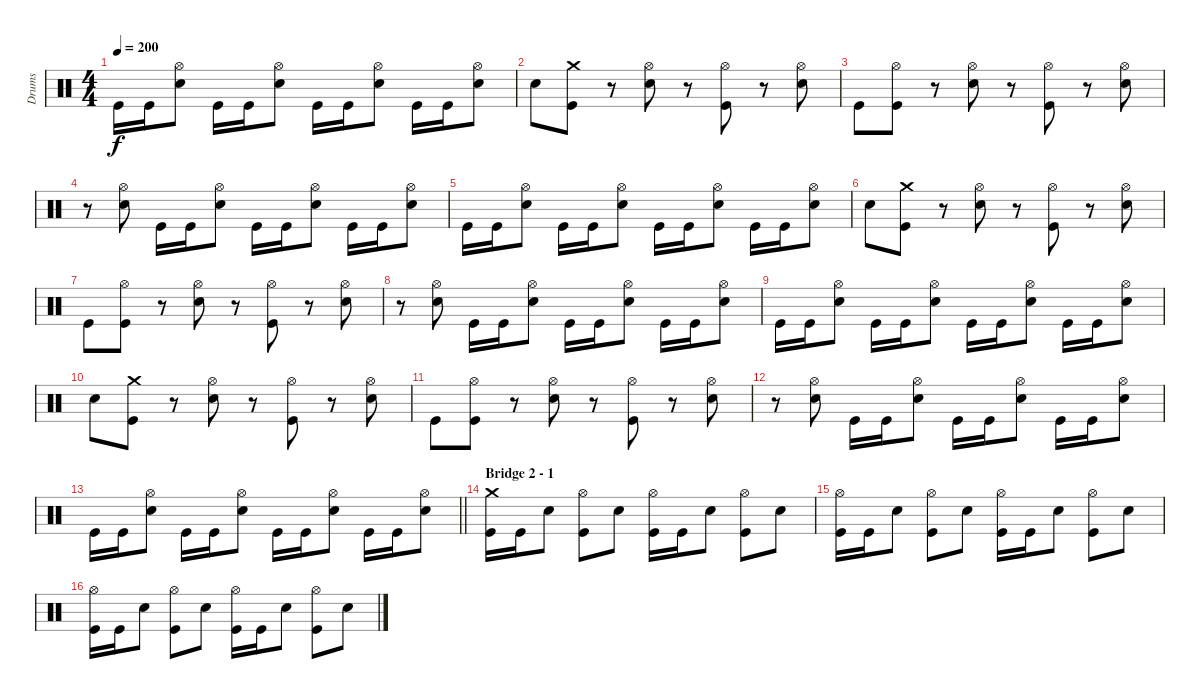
\track ("Drums" "Drums") {instrument percussion}
\staff {score}
\articulation defaults
\ts (4 4)
\tempo 200
\clef neutral
\ks c "Kick (hit)".16{dy f} "Kick (hit)".16
("Hi-Hat (open)" "Snare (hit) 2").8 "Kick (hit)".16 "Kick (hit)".16 ("Hi-Hat (open)" "Snare (hit) 2").8 "Kick (hit)".16 "Kick (hit)".16 ("Hi-Hat (open)" "Snare (hit) 2").8 "Kick (hit)".16 "Kick (hit)".16 ("Hi-Hat (open)" "Snare (hit) 2").8 |
"Snare (hit) 2".8 ("Crash medium (hit)" "Kick (hit)").8 r.8 ("Hi-Hat (open)" "Snare (hit) 2").8 r.8 ("Hi-Hat (open)" "Kick (hit)").8 r.8 ("Hi-Hat (open)" "Snare (hit) 2").8 |
"Kick (hit)".8 ("Hi-Hat (open)" "Kick (hit)").8 r.8 ("Hi-Hat (open)" "Snare (hit) 2").8 r.8 ("Hi-Hat (open)" "Kick (hit)").8 r.8 ("Hi-Hat (open)" "Snare (hit) 2").8 |
r.8 ("Hi-Hat (open)" "Snare (hit) 2").8 "Kick (hit)".16 "Kick (hit)".16 ("Hi-Hat (open)" "Snare (hit) 2").8 "Kick (hit)".16 "Kick (hit)".16 ("Hi-Hat (open)" "Snare (hit) 2").8 "Kick (hit)".16 "Kick (hit)".16 ("Hi-Hat (open)" "Snare (hit) 2").8 |
"Kick (hit)".16 "Kick (hit)".16 ("Hi-Hat (open)" "Snare (hit) 2").8 "Kick (hit)".16 "Kick (hit)".16 ("Hi-Hat (open)" "Snare (hit) 2").8 "Kick (hit)".16 "Kick (hit)".16 ("Hi-Hat (open)" "Snare (hit) 2").8 "Kick (hit)".16 "Kick (hit)".16 ("Hi-Hat (open)" "Snare (hit) 2").8 |
"Snare (hit) 2".8 ("Crash medium (hit)" "Kick (hit)").8 r.8 ("Hi-Hat (open)" "Snare (hit) 2").8 r.8 ("Hi-Hat (open)" "Kick (hit)").8 r.8 ("Hi-Hat (open)" "Snare (hit) 2").8 |
"Kick (hit)".8 ("Hi-Hat (open)" "Kick (hit)").8 r.8 ("Hi-Hat (open)" "Snare (hit) 2").8 r.8 ("Hi-Hat (open)" "Kick (hit)").8 r.8 ("Hi-Hat (open)" "Snare (hit) 2").8 |
r.8 ("Hi-Hat (open)" "Snare (hit) 2").8 "Kick (hit)".16 "Kick (hit)".16 ("Hi-Hat (open)" "Snare (hit) 2").8 "Kick (hit)".16 "Kick (hit)".16 ("Hi-Hat (open)" "Snare (hit) 2").8 "Kick (hit)".16 "Kick (hit)".16 ("Hi-Hat (open)" "Snare (hit) 2").8 |
"Kick (hit)".16 "Kick (hit)".16 ("Hi-Hat (open)" "Snare (hit) 2").8 "Kick (hit)".16 "Kick (hit)".16 ("Hi-Hat (open)" "Snare (hit) 2").8 "Kick (hit)".16 "Kick (hit)".16 ("Hi-Hat (open)" "Snare (hit) 2").8 "Kick (hit)".16 "Kick (hit)".16 ("Hi-Hat (open)" "Snare (hit) 2").8 |
"Snare (hit) 2".8 ("Crash medium (hit)" "Kick (hit)").8 r.8 ("Hi-Hat (open)" "Snare (hit) 2").8 r.8 ("Hi-Hat (open)" "Kick (hit)").8 r.8 ("Hi-Hat (open)" "Snare (hit) 2").8 |
"Kick (hit)".8 ("Hi-Hat (open)" "Kick (hit)").8 r.8 ("Hi-Hat (open)" "Snare (hit) 2").8 r.8 ("Hi-Hat (open)" "Kick (hit)").8 r.8 ("Hi-Hat (open)" "Snare (hit) 2").8 |
r.8 ("Hi-Hat (open)" "Snare (hit) 2").8 "Kick (hit)".16 "Kick (hit)".16 ("Hi-Hat (open)" "Snare (hit) 2").8 "Kick (hit)".16 "Kick (hit)".16 ("Hi-Hat (open)" "Snare (hit) 2").8 "Kick (hit)".16 "Kick (hit)".16 ("Hi-Hat (open)" "Snare (hit) 2").8 |
\barLineRight lightlight "Kick (hit)".16 "Kick (hit)".16
("Hi-Hat (open)" "Snare (hit) 2").8 "Kick (hit)".16 "Kick (hit)".16 ("Hi-Hat (open)" "Snare (hit) 2").8 "Kick (hit)".16 "Kick (hit)".16 ("Hi-Hat (open)" "Snare (hit) 2").8 "Kick (hit)".16 "Kick (hit)".16 ("Hi-Hat (open)" "Snare (hit) 2").8 |
\section ("" "Bridge 2 - 1")
("Crash medium (hit)" "Kick (hit)").16 "Kick (hit)".16 "Snare (hit) 2".8 ("Hi-Hat (open)" "Kick (hit)").8 "Snare (hit) 2".8 ("Hi-Hat (open)" "Kick (hit)").16 "Kick (hit)".16 "Snare (hit) 2".8 ("Hi-Hat (open)" "Kick (hit)").8 "Snare (hit) 2".8 |
("Hi-Hat (open)" "Kick (hit)").16 "Kick (hit)".16 "Snare (hit) 2".8 ("Hi-Hat (open)" "Kick (hit)").8 "Snare (hit) 2".8 ("Hi-Hat (open)" "Kick (hit)").16 "Kick (hit)".16 "Snare (hit) 2".8 ("Hi-Hat (open)" "Kick (hit)").8 "Snare (hit) 2".8 |
("Hi-Hat (open)" "Kick (hit)").16 "Kick (hit)".16 "Snare (hit) 2".8 ("Hi-Hat (open)" "Kick (hit)").8 "Snare (hit) 2".8 ("Hi-Hat (open)" "Kick (hit)").16 "Kick (hit)".16 "Snare (hit) 2".8 ("Hi-Hat (open)" "Kick (hit)").8 "Snare (hit) 2".8
